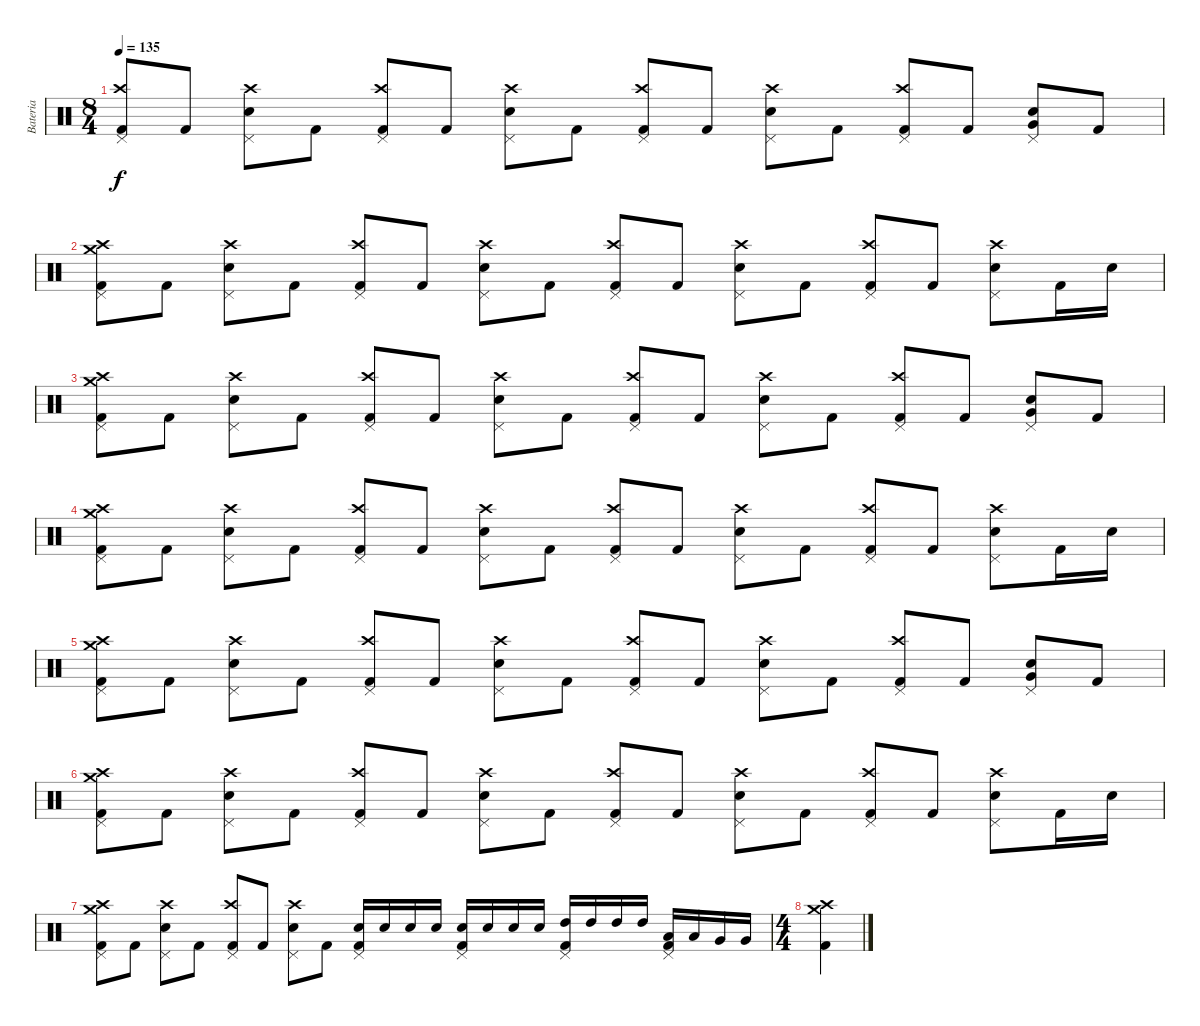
\track ("Bateria" "Bateria") {instrument percussion}
\staff {score}
\articulation defaults
\ts (8 4)
\tempo 135
\clef neutral
\ks c
("Kick (hit) 2" "Crash high (hit)" "Pedal Hi-Hat (hit)").8{dy f} "Kick (hit) 2".8 ("Electric Snare (hit)" "Crash high (hit)" "Pedal Hi-Hat (hit)").8 "Kick (hit) 2".8 ("Kick (hit) 2" "Crash high (hit)" "Pedal Hi-Hat (hit)").8 "Kick (hit) 2".8 ("Electric Snare (hit)" "Crash high (hit)" "Pedal Hi-Hat (hit)").8 "Kick (hit) 2".8 ("Kick (hit) 2" "Crash high (hit)" "Pedal Hi-Hat (hit)").8 "Kick (hit) 2".8 ("Electric Snare (hit)" "Crash high (hit)" "Pedal Hi-Hat (hit)").8 "Kick (hit) 2".8 ("Kick (hit) 2" "Crash high (hit)" "Pedal Hi-Hat (hit)").8 "Kick (hit) 2".8 ("Electric Snare (hit)" "Very Low Tom (hit)" "Pedal Hi-Hat (hit)").8 "Kick (hit) 2".8 |
("Kick (hit) 2" "Crash medium (hit)" "Crash high (hit)" "Pedal Hi-Hat (hit)").8 "Kick (hit) 2".8 ("Electric Snare (hit)" "Crash high (hit)" "Pedal Hi-Hat (hit)").8 "Kick (hit) 2".8 ("Kick (hit) 2" "Crash high (hit)" "Pedal Hi-Hat (hit)").8 "Kick (hit) 2".8 ("Electric Snare (hit)" "Crash high (hit)" "Pedal Hi-Hat (hit)").8 "Kick (hit) 2".8 ("Kick (hit) 2" "Crash high (hit)" "Pedal Hi-Hat (hit)").8 "Kick (hit) 2".8 ("Electric Snare (hit)" "Crash high (hit)" "Pedal Hi-Hat (hit)").8 "Kick (hit) 2".8 ("Kick (hit) 2" "Crash high (hit)" "Pedal Hi-Hat (hit)").8 "Kick (hit) 2".8 ("Electric Snare (hit)" "Crash high (hit)" "Pedal Hi-Hat (hit)").8 "Kick (hit) 2".16 "Electric Snare (hit)".16 |
("Kick (hit) 2" "Crash medium (hit)" "Crash high (hit)" "Pedal Hi-Hat (hit)").8 "Kick (hit) 2".8 ("Electric Snare (hit)" "Crash high (hit)" "Pedal Hi-Hat (hit)").8 "Kick (hit) 2".8 ("Kick (hit) 2" "Crash high (hit)" "Pedal Hi-Hat (hit)").8 "Kick (hit) 2".8 ("Electric Snare (hit)" "Crash high (hit)" "Pedal Hi-Hat (hit)").8 "Kick (hit) 2".8 ("Kick (hit) 2" "Crash high (hit)" "Pedal Hi-Hat (hit)").8 "Kick (hit) 2".8 ("Electric Snare (hit)" "Crash high (hit)" "Pedal Hi-Hat (hit)").8 "Kick (hit) 2".8 ("Kick (hit) 2" "Crash high (hit)" "Pedal Hi-Hat (hit)").8 "Kick (hit) 2".8 ("Electric Snare (hit)" "Very Low Tom (hit)" "Pedal Hi-Hat (hit)").8 "Kick (hit) 2".8 |
("Kick (hit) 2" "Crash medium (hit)" "Crash high (hit)" "Pedal Hi-Hat (hit)").8 "Kick (hit) 2".8 ("Electric Snare (hit)" "Crash high (hit)" "Pedal Hi-Hat (hit)").8 "Kick (hit) 2".8 ("Kick (hit) 2" "Crash high (hit)" "Pedal Hi-Hat (hit)").8 "Kick (hit) 2".8 ("Electric Snare (hit)" "Crash high (hit)" "Pedal Hi-Hat (hit)").8 "Kick (hit) 2".8 ("Kick (hit) 2" "Crash high (hit)" "Pedal Hi-Hat (hit)").8 "Kick (hit) 2".8 ("Electric Snare (hit)" "Crash high (hit)" "Pedal Hi-Hat (hit)").8 "Kick (hit) 2".8 ("Kick (hit) 2" "Crash high (hit)" "Pedal Hi-Hat (hit)").8 "Kick (hit) 2".8 ("Electric Snare (hit)" "Crash high (hit)" "Pedal Hi-Hat (hit)").8 "Kick (hit) 2".16 "Electric Snare (hit)".16 |
("Kick (hit) 2" "Crash medium (hit)" "Crash high (hit)" "Pedal Hi-Hat (hit)").8 "Kick (hit) 2".8 ("Electric Snare (hit)" "Crash high (hit)" "Pedal Hi-Hat (hit)").8 "Kick (hit) 2".8 ("Kick (hit) 2" "Crash high (hit)" "Pedal Hi-Hat (hit)").8 "Kick (hit) 2".8 ("Electric Snare (hit)" "Crash high (hit)" "Pedal Hi-Hat (hit)").8 "Kick (hit) 2".8 ("Kick (hit) 2" "Crash high (hit)" "Pedal Hi-Hat (hit)").8 "Kick (hit) 2".8 ("Electric Snare (hit)" "Crash high (hit)" "Pedal Hi-Hat (hit)").8 "Kick (hit) 2".8 ("Kick (hit) 2" "Crash high (hit)" "Pedal Hi-Hat (hit)").8 "Kick (hit) 2".8 ("Electric Snare (hit)" "Very Low Tom (hit)" "Pedal Hi-Hat (hit)").8 "Kick (hit) 2".8 |
("Kick (hit) 2" "Crash medium (hit)" "Crash high (hit)" "Pedal Hi-Hat (hit)").8 "Kick (hit) 2".8 ("Electric Snare (hit)" "Crash high (hit)" "Pedal Hi-Hat (hit)").8 "Kick (hit) 2".8 ("Kick (hit) 2" "Crash high (hit)" "Pedal Hi-Hat (hit)").8 "Kick (hit) 2".8 ("Electric Snare (hit)" "Crash high (hit)" "Pedal Hi-Hat (hit)").8 "Kick (hit) 2".8 ("Kick (hit) 2" "Crash high (hit)" "Pedal Hi-Hat (hit)").8 "Kick (hit) 2".8 ("Electric Snare (hit)" "Crash high (hit)" "Pedal Hi-Hat (hit)").8 "Kick (hit) 2".8 ("Kick (hit) 2" "Crash high (hit)" "Pedal Hi-Hat (hit)").8 "Kick (hit) 2".8 ("Electric Snare (hit)" "Crash high (hit)" "Pedal Hi-Hat (hit)").8 "Kick (hit) 2".16 "Electric Snare (hit)".16 |
("Kick (hit) 2" "Crash medium (hit)" "Crash high (hit)" "Pedal Hi-Hat (hit)").8 "Kick (hit) 2".8 ("Electric Snare (hit)" "Crash high (hit)" "Pedal Hi-Hat (hit)").8 "Kick (hit) 2".8 ("Kick (hit) 2" "Crash high (hit)" "Pedal Hi-Hat (hit)").8 "Kick (hit) 2".8 ("Electric Snare (hit)" "Crash high (hit)" "Pedal Hi-Hat (hit)").8 "Kick (hit) 2".8 ("Kick (hit) 2" "Electric Snare (hit)" "Pedal Hi-Hat (hit)").16 "Electric Snare (hit)".16 "Electric Snare (hit)".16 "Electric Snare (hit)".16 ("Kick (hit) 2" "Electric Snare (hit)" "Pedal Hi-Hat (hit)").16 "Electric Snare (hit)".16 "Electric Snare (hit)".16 "Electric Snare (hit)".16 ("Kick (hit) 2" "High Tom (hit)" "Pedal Hi-Hat (hit)").16 "High Tom (hit)".16 "High Tom (hit)".16 "High Tom (hit)".16 ("Kick (hit) 2" "Low Tom (hit)" "Pedal Hi-Hat (hit)").16 "Low Tom (hit)".16 "Very Low Tom (hit)".16 "Very Low Tom (hit)".16 |
\ts (4 4)
("Kick (hit) 2" "Crash medium (hit)" "Crash high (hit)").4
